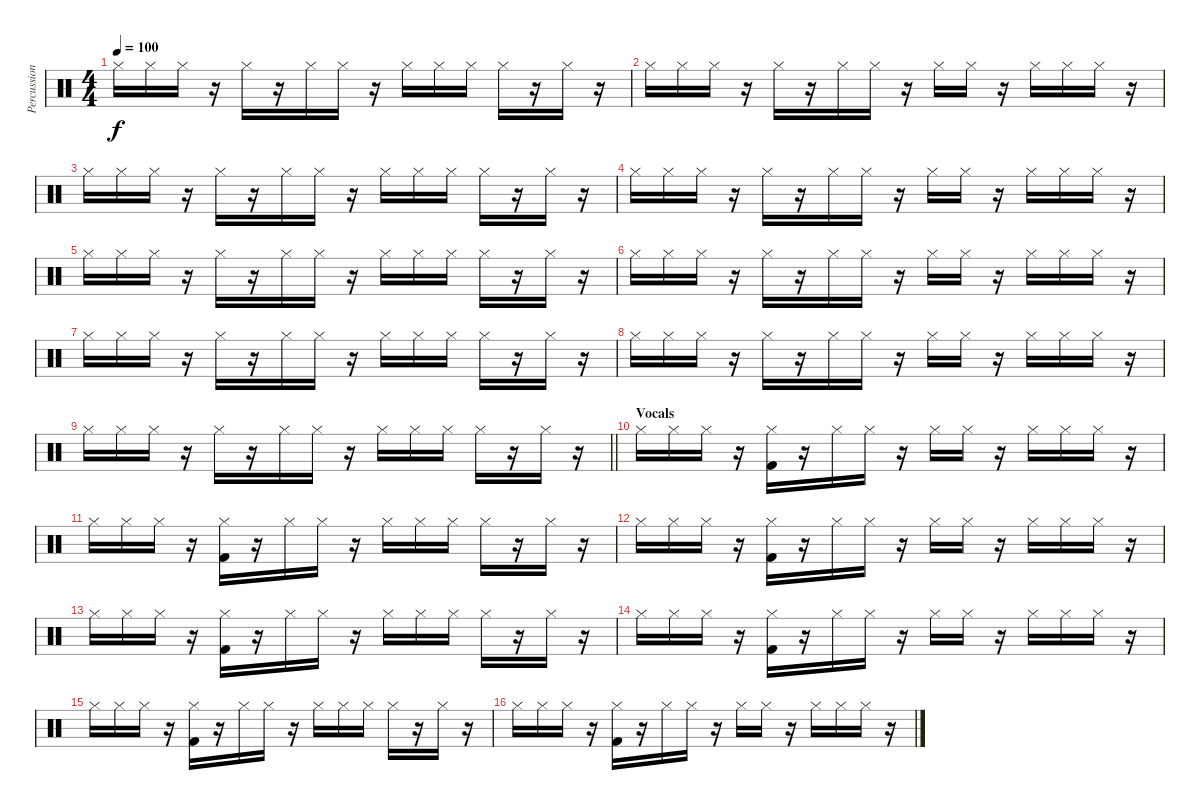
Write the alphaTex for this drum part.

\track ("Percussion" "Percussion") {instrument percussion}
\staff {score}
\articulation defaults
\ts (4 4)
\tempo 100
\clef neutral
\ks c "Hi-Hat (closed)".16{dy f} "Hi-Hat (closed)".16 "Hi-Hat (closed)".16
r.16 "Hi-Hat (closed)".16 r.16 "Hi-Hat (closed)".16 "Hi-Hat (closed)".16 r.16 "Hi-Hat (closed)".16 "Hi-Hat (closed)".16 "Hi-Hat (closed)".16 "Hi-Hat (closed)".16 r.16 "Hi-Hat (closed)".16 r.16 |
"Hi-Hat (closed)".16 "Hi-Hat (closed)".16 "Hi-Hat (closed)".16 r.16 "Hi-Hat (closed)".16 r.16 "Hi-Hat (closed)".16 "Hi-Hat (closed)".16 r.16 "Hi-Hat (closed)".16 "Hi-Hat (closed)".16 r.16 "Hi-Hat (closed)".16 "Hi-Hat (closed)".16 "Hi-Hat (closed)".16 r.16 |
"Hi-Hat (closed)".16 "Hi-Hat (closed)".16 "Hi-Hat (closed)".16 r.16 "Hi-Hat (closed)".16 r.16 "Hi-Hat (closed)".16 "Hi-Hat (closed)".16 r.16 "Hi-Hat (closed)".16 "Hi-Hat (closed)".16 "Hi-Hat (closed)".16 "Hi-Hat (closed)".16 r.16 "Hi-Hat (closed)".16 r.16 |
"Hi-Hat (closed)".16 "Hi-Hat (closed)".16 "Hi-Hat (closed)".16 r.16 "Hi-Hat (closed)".16 r.16 "Hi-Hat (closed)".16 "Hi-Hat (closed)".16 r.16 "Hi-Hat (closed)".16 "Hi-Hat (closed)".16 r.16 "Hi-Hat (closed)".16 "Hi-Hat (closed)".16 "Hi-Hat (closed)".16 r.16 |
"Hi-Hat (closed)".16 "Hi-Hat (closed)".16 "Hi-Hat (closed)".16 r.16 "Hi-Hat (closed)".16 r.16 "Hi-Hat (closed)".16 "Hi-Hat (closed)".16 r.16 "Hi-Hat (closed)".16 "Hi-Hat (closed)".16 "Hi-Hat (closed)".16 "Hi-Hat (closed)".16 r.16 "Hi-Hat (closed)".16 r.16 |
"Hi-Hat (closed)".16 "Hi-Hat (closed)".16 "Hi-Hat (closed)".16 r.16 "Hi-Hat (closed)".16 r.16 "Hi-Hat (closed)".16 "Hi-Hat (closed)".16 r.16 "Hi-Hat (closed)".16 "Hi-Hat (closed)".16 r.16 "Hi-Hat (closed)".16 "Hi-Hat (closed)".16 "Hi-Hat (closed)".16 r.16 |
"Hi-Hat (closed)".16 "Hi-Hat (closed)".16 "Hi-Hat (closed)".16 r.16 "Hi-Hat (closed)".16 r.16 "Hi-Hat (closed)".16 "Hi-Hat (closed)".16 r.16 "Hi-Hat (closed)".16 "Hi-Hat (closed)".16 "Hi-Hat (closed)".16 "Hi-Hat (closed)".16 r.16 "Hi-Hat (closed)".16 r.16 |
"Hi-Hat (closed)".16 "Hi-Hat (closed)".16 "Hi-Hat (closed)".16 r.16 "Hi-Hat (closed)".16 r.16 "Hi-Hat (closed)".16 "Hi-Hat (closed)".16 r.16 "Hi-Hat (closed)".16 "Hi-Hat (closed)".16 r.16 "Hi-Hat (closed)".16 "Hi-Hat (closed)".16 "Hi-Hat (closed)".16 r.16 |
\barLineRight lightlight "Hi-Hat (closed)".16 "Hi-Hat (closed)".16 "Hi-Hat (closed)".16
r.16 "Hi-Hat (closed)".16 r.16 "Hi-Hat (closed)".16 "Hi-Hat (closed)".16 r.16 "Hi-Hat (closed)".16 "Hi-Hat (closed)".16 "Hi-Hat (closed)".16 "Hi-Hat (closed)".16 r.16 "Hi-Hat (closed)".16 r.16 |
\section ("" "Vocals")
"Hi-Hat (closed)".16 "Hi-Hat (closed)".16 "Hi-Hat (closed)".16 r.16 ("Hi-Hat (closed)" "Kick (hit) 2").16 r.16 "Hi-Hat (closed)".16 "Hi-Hat (closed)".16 r.16 "Hi-Hat (closed)".16 "Hi-Hat (closed)".16 r.16 "Hi-Hat (closed)".16 "Hi-Hat (closed)".16 "Hi-Hat (closed)".16 r.16 |
"Hi-Hat (closed)".16 "Hi-Hat (closed)".16 "Hi-Hat (closed)".16 r.16 ("Hi-Hat (closed)" "Kick (hit) 2").16 r.16 "Hi-Hat (closed)".16 "Hi-Hat (closed)".16 r.16 "Hi-Hat (closed)".16 "Hi-Hat (closed)".16 "Hi-Hat (closed)".16 "Hi-Hat (closed)".16 r.16 "Hi-Hat (closed)".16 r.16 |
"Hi-Hat (closed)".16 "Hi-Hat (closed)".16 "Hi-Hat (closed)".16 r.16 ("Hi-Hat (closed)" "Kick (hit) 2").16 r.16 "Hi-Hat (closed)".16 "Hi-Hat (closed)".16 r.16 "Hi-Hat (closed)".16 "Hi-Hat (closed)".16 r.16 "Hi-Hat (closed)".16 "Hi-Hat (closed)".16 "Hi-Hat (closed)".16 r.16 |
"Hi-Hat (closed)".16 "Hi-Hat (closed)".16 "Hi-Hat (closed)".16 r.16 ("Hi-Hat (closed)" "Kick (hit) 2").16 r.16 "Hi-Hat (closed)".16 "Hi-Hat (closed)".16 r.16 "Hi-Hat (closed)".16 "Hi-Hat (closed)".16 "Hi-Hat (closed)".16 "Hi-Hat (closed)".16 r.16 "Hi-Hat (closed)".16 r.16 |
"Hi-Hat (closed)".16 "Hi-Hat (closed)".16 "Hi-Hat (closed)".16 r.16 ("Hi-Hat (closed)" "Kick (hit) 2").16 r.16 "Hi-Hat (closed)".16 "Hi-Hat (closed)".16 r.16 "Hi-Hat (closed)".16 "Hi-Hat (closed)".16 r.16 "Hi-Hat (closed)".16 "Hi-Hat (closed)".16 "Hi-Hat (closed)".16 r.16 |
"Hi-Hat (closed)".16 "Hi-Hat (closed)".16 "Hi-Hat (closed)".16 r.16 ("Hi-Hat (closed)" "Kick (hit) 2").16 r.16 "Hi-Hat (closed)".16 "Hi-Hat (closed)".16 r.16 "Hi-Hat (closed)".16 "Hi-Hat (closed)".16 "Hi-Hat (closed)".16 "Hi-Hat (closed)".16 r.16 "Hi-Hat (closed)".16 r.16 |
"Hi-Hat (closed)".16 "Hi-Hat (closed)".16 "Hi-Hat (closed)".16 r.16 ("Hi-Hat (closed)" "Kick (hit) 2").16 r.16 "Hi-Hat (closed)".16 "Hi-Hat (closed)".16 r.16 "Hi-Hat (closed)".16 "Hi-Hat (closed)".16 r.16 "Hi-Hat (closed)".16 "Hi-Hat (closed)".16 "Hi-Hat (closed)".16 r.16
